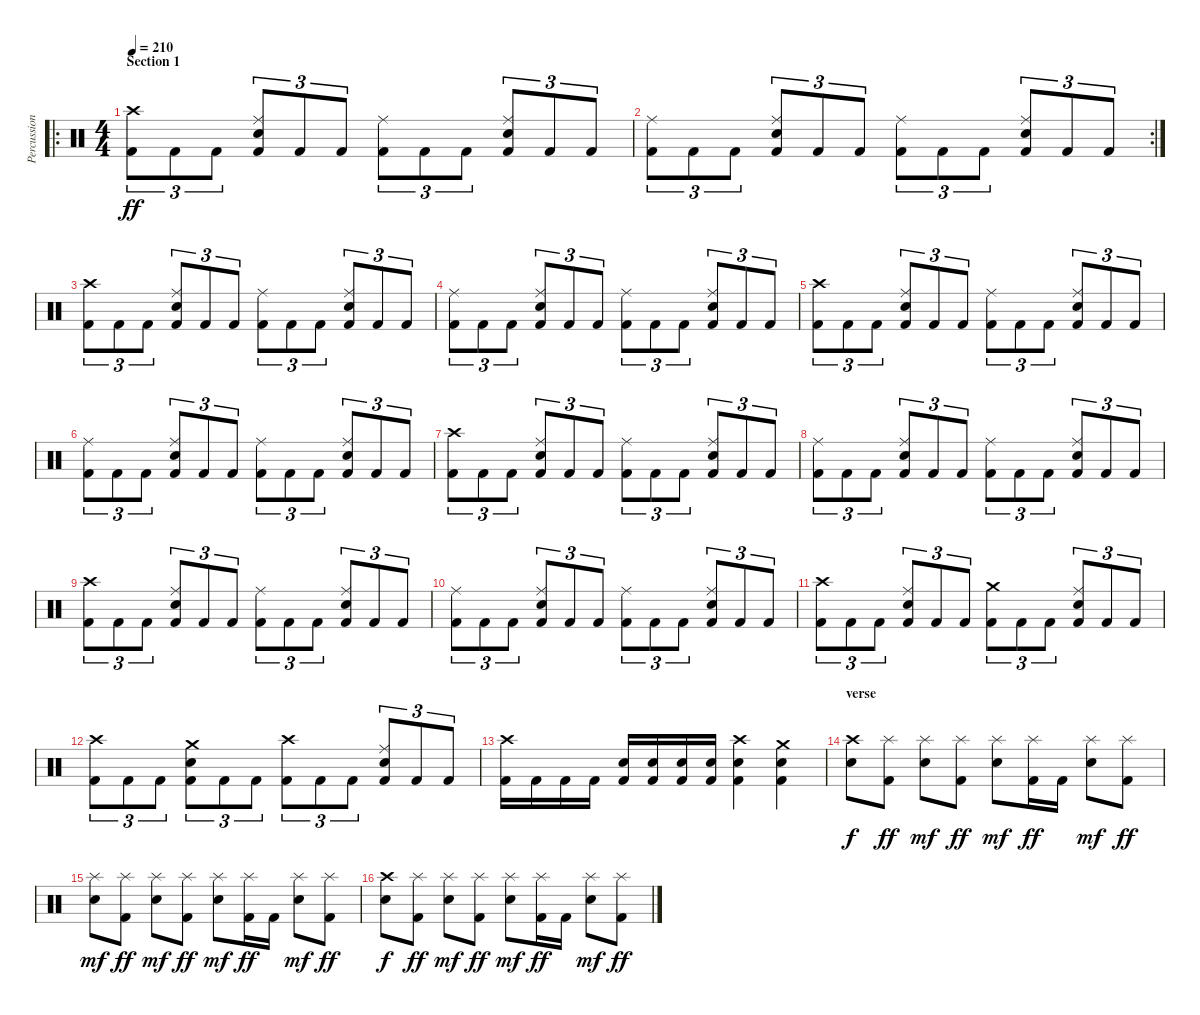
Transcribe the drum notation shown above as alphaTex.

\track ("Percussion" "Percussion") {instrument percussion}
\staff {score}
\articulation defaults
\ro
\ts (4 4)
\section ("" "Section 1")
\tempo 210
\clef neutral
\ks c
("Crash high (hit)" "Kick (hit) 2").8{tu (3 2) dy ff} "Kick (hit) 2".8{tu (3 2)} "Kick (hit) 2".8{tu (3 2)} ("Ride (middle)" "Snare (hit) 2" "Kick (hit) 2").8{tu (3 2)} "Kick (hit) 2".8{tu (3 2)} "Kick (hit) 2".8{tu (3 2)} ("Ride (middle)" "Kick (hit) 2").8{tu (3 2)} "Kick (hit) 2".8{tu (3 2)} "Kick (hit) 2".8{tu (3 2)} ("Ride (middle)" "Snare (hit) 2" "Kick (hit) 2").8{tu (3 2)} "Kick (hit) 2".8{tu (3 2)} "Kick (hit) 2".8{tu (3 2)} |
\rc 2
("Ride (middle)" "Kick (hit) 2").8{tu (3 2)} "Kick (hit) 2".8{tu (3 2)} "Kick (hit) 2".8{tu (3 2)} ("Ride (middle)" "Snare (hit) 2" "Kick (hit) 2").8{tu (3 2)} "Kick (hit) 2".8{tu (3 2)} "Kick (hit) 2".8{tu (3 2)} ("Ride (middle)" "Kick (hit) 2").8{tu (3 2)} "Kick (hit) 2".8{tu (3 2)} "Kick (hit) 2".8{tu (3 2)} ("Ride (middle)" "Snare (hit) 2" "Kick (hit) 2").8{tu (3 2)} "Kick (hit) 2".8{tu (3 2)} "Kick (hit) 2".8{tu (3 2)} |
("Crash high (hit)" "Kick (hit) 2").8{tu (3 2)} "Kick (hit) 2".8{tu (3 2)} "Kick (hit) 2".8{tu (3 2)} ("Ride (middle)" "Snare (hit) 2" "Kick (hit) 2").8{tu (3 2)} "Kick (hit) 2".8{tu (3 2)} "Kick (hit) 2".8{tu (3 2)} ("Ride (middle)" "Kick (hit) 2").8{tu (3 2)} "Kick (hit) 2".8{tu (3 2)} "Kick (hit) 2".8{tu (3 2)} ("Ride (middle)" "Snare (hit) 2" "Kick (hit) 2").8{tu (3 2)} "Kick (hit) 2".8{tu (3 2)} "Kick (hit) 2".8{tu (3 2)} |
("Ride (middle)" "Kick (hit) 2").8{tu (3 2)} "Kick (hit) 2".8{tu (3 2)} "Kick (hit) 2".8{tu (3 2)} ("Ride (middle)" "Snare (hit) 2" "Kick (hit) 2").8{tu (3 2)} "Kick (hit) 2".8{tu (3 2)} "Kick (hit) 2".8{tu (3 2)} ("Ride (middle)" "Kick (hit) 2").8{tu (3 2)} "Kick (hit) 2".8{tu (3 2)} "Kick (hit) 2".8{tu (3 2)} ("Ride (middle)" "Snare (hit) 2" "Kick (hit) 2").8{tu (3 2)} "Kick (hit) 2".8{tu (3 2)} "Kick (hit) 2".8{tu (3 2)} |
("Crash high (hit)" "Kick (hit) 2").8{tu (3 2)} "Kick (hit) 2".8{tu (3 2)} "Kick (hit) 2".8{tu (3 2)} ("Ride (middle)" "Snare (hit) 2" "Kick (hit) 2").8{tu (3 2)} "Kick (hit) 2".8{tu (3 2)} "Kick (hit) 2".8{tu (3 2)} ("Ride (middle)" "Kick (hit) 2").8{tu (3 2)} "Kick (hit) 2".8{tu (3 2)} "Kick (hit) 2".8{tu (3 2)} ("Ride (middle)" "Snare (hit) 2" "Kick (hit) 2").8{tu (3 2)} "Kick (hit) 2".8{tu (3 2)} "Kick (hit) 2".8{tu (3 2)} |
("Ride (middle)" "Kick (hit) 2").8{tu (3 2)} "Kick (hit) 2".8{tu (3 2)} "Kick (hit) 2".8{tu (3 2)} ("Ride (middle)" "Snare (hit) 2" "Kick (hit) 2").8{tu (3 2)} "Kick (hit) 2".8{tu (3 2)} "Kick (hit) 2".8{tu (3 2)} ("Ride (middle)" "Kick (hit) 2").8{tu (3 2)} "Kick (hit) 2".8{tu (3 2)} "Kick (hit) 2".8{tu (3 2)} ("Ride (middle)" "Snare (hit) 2" "Kick (hit) 2").8{tu (3 2)} "Kick (hit) 2".8{tu (3 2)} "Kick (hit) 2".8{tu (3 2)} |
("Crash high (hit)" "Kick (hit) 2").8{tu (3 2)} "Kick (hit) 2".8{tu (3 2)} "Kick (hit) 2".8{tu (3 2)} ("Ride (middle)" "Snare (hit) 2" "Kick (hit) 2").8{tu (3 2)} "Kick (hit) 2".8{tu (3 2)} "Kick (hit) 2".8{tu (3 2)} ("Ride (middle)" "Kick (hit) 2").8{tu (3 2)} "Kick (hit) 2".8{tu (3 2)} "Kick (hit) 2".8{tu (3 2)} ("Ride (middle)" "Snare (hit) 2" "Kick (hit) 2").8{tu (3 2)} "Kick (hit) 2".8{tu (3 2)} "Kick (hit) 2".8{tu (3 2)} |
("Ride (middle)" "Kick (hit) 2").8{tu (3 2)} "Kick (hit) 2".8{tu (3 2)} "Kick (hit) 2".8{tu (3 2)} ("Ride (middle)" "Snare (hit) 2" "Kick (hit) 2").8{tu (3 2)} "Kick (hit) 2".8{tu (3 2)} "Kick (hit) 2".8{tu (3 2)} ("Ride (middle)" "Kick (hit) 2").8{tu (3 2)} "Kick (hit) 2".8{tu (3 2)} "Kick (hit) 2".8{tu (3 2)} ("Ride (middle)" "Snare (hit) 2" "Kick (hit) 2").8{tu (3 2)} "Kick (hit) 2".8{tu (3 2)} "Kick (hit) 2".8{tu (3 2)} |
("Crash high (hit)" "Kick (hit) 2").8{tu (3 2)} "Kick (hit) 2".8{tu (3 2)} "Kick (hit) 2".8{tu (3 2)} ("Ride (middle)" "Snare (hit) 2" "Kick (hit) 2").8{tu (3 2)} "Kick (hit) 2".8{tu (3 2)} "Kick (hit) 2".8{tu (3 2)} ("Ride (middle)" "Kick (hit) 2").8{tu (3 2)} "Kick (hit) 2".8{tu (3 2)} "Kick (hit) 2".8{tu (3 2)} ("Ride (middle)" "Snare (hit) 2" "Kick (hit) 2").8{tu (3 2)} "Kick (hit) 2".8{tu (3 2)} "Kick (hit) 2".8{tu (3 2)} |
("Ride (middle)" "Kick (hit) 2").8{tu (3 2)} "Kick (hit) 2".8{tu (3 2)} "Kick (hit) 2".8{tu (3 2)} ("Ride (middle)" "Snare (hit) 2" "Kick (hit) 2").8{tu (3 2)} "Kick (hit) 2".8{tu (3 2)} "Kick (hit) 2".8{tu (3 2)} ("Ride (middle)" "Kick (hit) 2").8{tu (3 2)} "Kick (hit) 2".8{tu (3 2)} "Kick (hit) 2".8{tu (3 2)} ("Ride (middle)" "Snare (hit) 2" "Kick (hit) 2").8{tu (3 2)} "Kick (hit) 2".8{tu (3 2)} "Kick (hit) 2".8{tu (3 2)} |
("Crash high (hit)" "Kick (hit) 2").8{tu (3 2)} "Kick (hit) 2".8{tu (3 2)} "Kick (hit) 2".8{tu (3 2)} ("Ride (middle)" "Snare (hit) 2" "Kick (hit) 2").8{tu (3 2)} "Kick (hit) 2".8{tu (3 2)} "Kick (hit) 2".8{tu (3 2)} ("Crash medium (hit)" "Kick (hit) 2").8{tu (3 2)} "Kick (hit) 2".8{tu (3 2)} "Kick (hit) 2".8{tu (3 2)} ("Ride (middle)" "Snare (hit) 2" "Kick (hit) 2").8{tu (3 2)} "Kick (hit) 2".8{tu (3 2)} "Kick (hit) 2".8{tu (3 2)} |
("Crash high (hit)" "Kick (hit) 2").8{tu (3 2)} "Kick (hit) 2".8{tu (3 2)} "Kick (hit) 2".8{tu (3 2)} ("Crash medium (hit)" "Snare (hit) 2" "Kick (hit) 2").8{tu (3 2)} "Kick (hit) 2".8{tu (3 2)} "Kick (hit) 2".8{tu (3 2)} ("Crash high (hit)" "Kick (hit) 2").8{tu (3 2)} "Kick (hit) 2".8{tu (3 2)} "Kick (hit) 2".8{tu (3 2)} ("Ride (middle)" "Snare (hit) 2" "Kick (hit) 2").8{tu (3 2)} "Kick (hit) 2".8{tu (3 2)} "Kick (hit) 2".8{tu (3 2)} |
("Crash high (hit)" "Kick (hit) 2").16 "Kick (hit) 2".16 "Kick (hit) 2".16 "Kick (hit) 2".16 ("Snare (hit) 2" "Kick (hit) 2").16 ("Snare (hit) 2" "Kick (hit) 2").16 ("Snare (hit) 2" "Kick (hit) 2").16 ("Snare (hit) 2" "Kick (hit) 2").16 ("Crash high (hit)" "Snare (hit) 2" "Kick (hit) 2").4 ("Crash medium (hit)" "Snare (hit) 2" "Kick (hit) 2").4 |
\section ("" "verse")
("Crash high (hit)" "Snare (hit) 2").8{dy f} ("Splash (hit)" "Kick (hit) 2").8{dy ff} ("Splash (hit)" "Snare (hit) 2").8{dy mf} ("Splash (hit)" "Kick (hit) 2").8{dy ff} ("Splash (hit)" "Snare (hit) 2").8{dy mf} ("Splash (hit)" "Kick (hit) 2").16{dy ff} "Kick (hit) 2".16 ("Splash (hit)" "Snare (hit) 2").8{dy mf} ("Splash (hit)" "Kick (hit) 2").8{dy ff} |
("Splash (hit)" "Snare (hit) 2").8{dy mf} ("Splash (hit)" "Kick (hit) 2").8{dy ff} ("Splash (hit)" "Snare (hit) 2").8{dy mf} ("Splash (hit)" "Kick (hit) 2").8{dy ff} ("Splash (hit)" "Snare (hit) 2").8{dy mf} ("Splash (hit)" "Kick (hit) 2").16{dy ff} "Kick (hit) 2".16 ("Splash (hit)" "Snare (hit) 2").8{dy mf} ("Splash (hit)" "Kick (hit) 2").8{dy ff} |
("Crash high (hit)" "Snare (hit) 2").8{dy f} ("Splash (hit)" "Kick (hit) 2").8{dy ff} ("Splash (hit)" "Snare (hit) 2").8{dy mf} ("Splash (hit)" "Kick (hit) 2").8{dy ff} ("Splash (hit)" "Snare (hit) 2").8{dy mf} ("Splash (hit)" "Kick (hit) 2").16{dy ff} "Kick (hit) 2".16 ("Splash (hit)" "Snare (hit) 2").8{dy mf} ("Splash (hit)" "Kick (hit) 2").8{dy ff}
